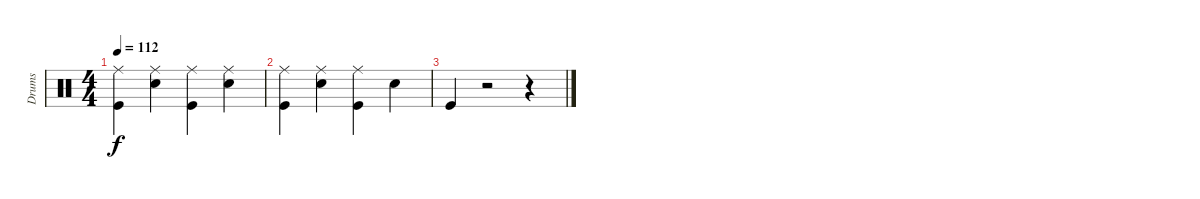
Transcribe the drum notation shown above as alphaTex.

\track ("Drums" "Drums") {instrument percussion}
\staff {score}
\articulation defaults
\ts (4 4)
\tempo 112
\clef neutral
\ks c
("Ride (middle)" "Kick (hit)").4{dy f volume 5} ("Ride (middle)" "Snare (hit) 2").4 ("Ride (middle)" "Kick (hit)").4 ("Ride (middle)" "Snare (hit) 2").4{volume 4} |
("Ride (middle)" "Kick (hit)").4 ("Ride (middle)" "Snare (hit) 2").4{volume 2} ("Ride (middle)" "Kick (hit)").4 "Snare (hit) 2".4{volume 1} |
"Kick (hit)".4 r.2 r.4
